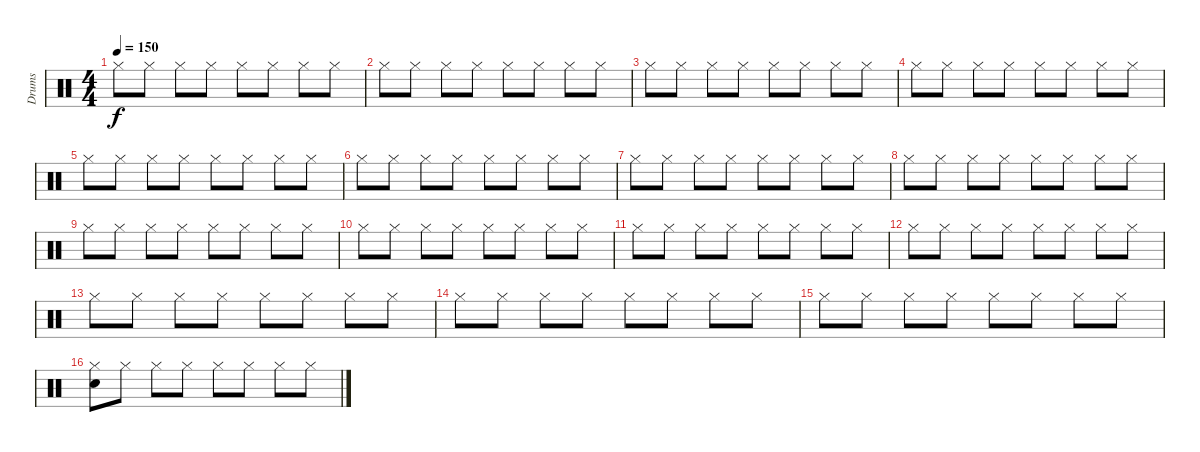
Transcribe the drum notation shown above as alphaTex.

\track ("Drums" "Drums") {instrument percussion}
\staff {score}
\articulation defaults
\ts (4 4)
\tempo 150
\clef neutral
\ks c "Hi-Hat (closed)".8{dy f} "Hi-Hat (closed)".8 "Hi-Hat (closed)".8 "Hi-Hat (closed)".8 "Hi-Hat (closed)".8 "Hi-Hat (closed)".8 "Hi-Hat (closed)".8 "Hi-Hat (closed)".8
|
"Hi-Hat (closed)".8 "Hi-Hat (closed)".8 "Hi-Hat (closed)".8 "Hi-Hat (closed)".8 "Hi-Hat (closed)".8 "Hi-Hat (closed)".8 "Hi-Hat (closed)".8 "Hi-Hat (closed)".8 |
"Hi-Hat (closed)".8 "Hi-Hat (closed)".8 "Hi-Hat (closed)".8 "Hi-Hat (closed)".8 "Hi-Hat (closed)".8 "Hi-Hat (closed)".8 "Hi-Hat (closed)".8 "Hi-Hat (closed)".8 |
"Hi-Hat (closed)".8 "Hi-Hat (closed)".8 "Hi-Hat (closed)".8 "Hi-Hat (closed)".8 "Hi-Hat (closed)".8 "Hi-Hat (closed)".8 "Hi-Hat (closed)".8 "Hi-Hat (closed)".8 |
"Hi-Hat (closed)".8 "Hi-Hat (closed)".8 "Hi-Hat (closed)".8 "Hi-Hat (closed)".8 "Hi-Hat (closed)".8 "Hi-Hat (closed)".8 "Hi-Hat (closed)".8 "Hi-Hat (closed)".8 |
"Hi-Hat (closed)".8 "Hi-Hat (closed)".8 "Hi-Hat (closed)".8 "Hi-Hat (closed)".8 "Hi-Hat (closed)".8 "Hi-Hat (closed)".8 "Hi-Hat (closed)".8 "Hi-Hat (closed)".8 |
"Hi-Hat (closed)".8 "Hi-Hat (closed)".8 "Hi-Hat (closed)".8 "Hi-Hat (closed)".8 "Hi-Hat (closed)".8 "Hi-Hat (closed)".8 "Hi-Hat (closed)".8 "Hi-Hat (closed)".8 |
"Hi-Hat (closed)".8 "Hi-Hat (closed)".8 "Hi-Hat (closed)".8 "Hi-Hat (closed)".8 "Hi-Hat (closed)".8 "Hi-Hat (closed)".8 "Hi-Hat (closed)".8 "Hi-Hat (closed)".8 |
"Hi-Hat (closed)".8 "Hi-Hat (closed)".8 "Hi-Hat (closed)".8 "Hi-Hat (closed)".8 "Hi-Hat (closed)".8 "Hi-Hat (closed)".8 "Hi-Hat (closed)".8 "Hi-Hat (closed)".8 |
"Hi-Hat (closed)".8 "Hi-Hat (closed)".8 "Hi-Hat (closed)".8 "Hi-Hat (closed)".8 "Hi-Hat (closed)".8 "Hi-Hat (closed)".8 "Hi-Hat (closed)".8 "Hi-Hat (closed)".8 |
"Hi-Hat (closed)".8 "Hi-Hat (closed)".8 "Hi-Hat (closed)".8 "Hi-Hat (closed)".8 "Hi-Hat (closed)".8 "Hi-Hat (closed)".8 "Hi-Hat (closed)".8 "Hi-Hat (closed)".8 |
"Hi-Hat (closed)".8 "Hi-Hat (closed)".8 "Hi-Hat (closed)".8 "Hi-Hat (closed)".8 "Hi-Hat (closed)".8 "Hi-Hat (closed)".8 "Hi-Hat (closed)".8 "Hi-Hat (closed)".8 |
"Hi-Hat (closed)".8 "Hi-Hat (closed)".8 "Hi-Hat (closed)".8 "Hi-Hat (closed)".8 "Hi-Hat (closed)".8 "Hi-Hat (closed)".8 "Hi-Hat (closed)".8 "Hi-Hat (closed)".8 |
"Hi-Hat (closed)".8 "Hi-Hat (closed)".8 "Hi-Hat (closed)".8 "Hi-Hat (closed)".8 "Hi-Hat (closed)".8 "Hi-Hat (closed)".8 "Hi-Hat (closed)".8 "Hi-Hat (closed)".8 |
"Hi-Hat (closed)".8 "Hi-Hat (closed)".8 "Hi-Hat (closed)".8 "Hi-Hat (closed)".8 "Hi-Hat (closed)".8 "Hi-Hat (closed)".8 "Hi-Hat (closed)".8 "Hi-Hat (closed)".8 |
("Hi-Hat (closed)" "Snare (hit) 2").8 "Hi-Hat (closed)".8 "Hi-Hat (closed)".8 "Hi-Hat (closed)".8 "Hi-Hat (closed)".8 "Hi-Hat (closed)".8 "Hi-Hat (closed)".8 "Hi-Hat (closed)".8
